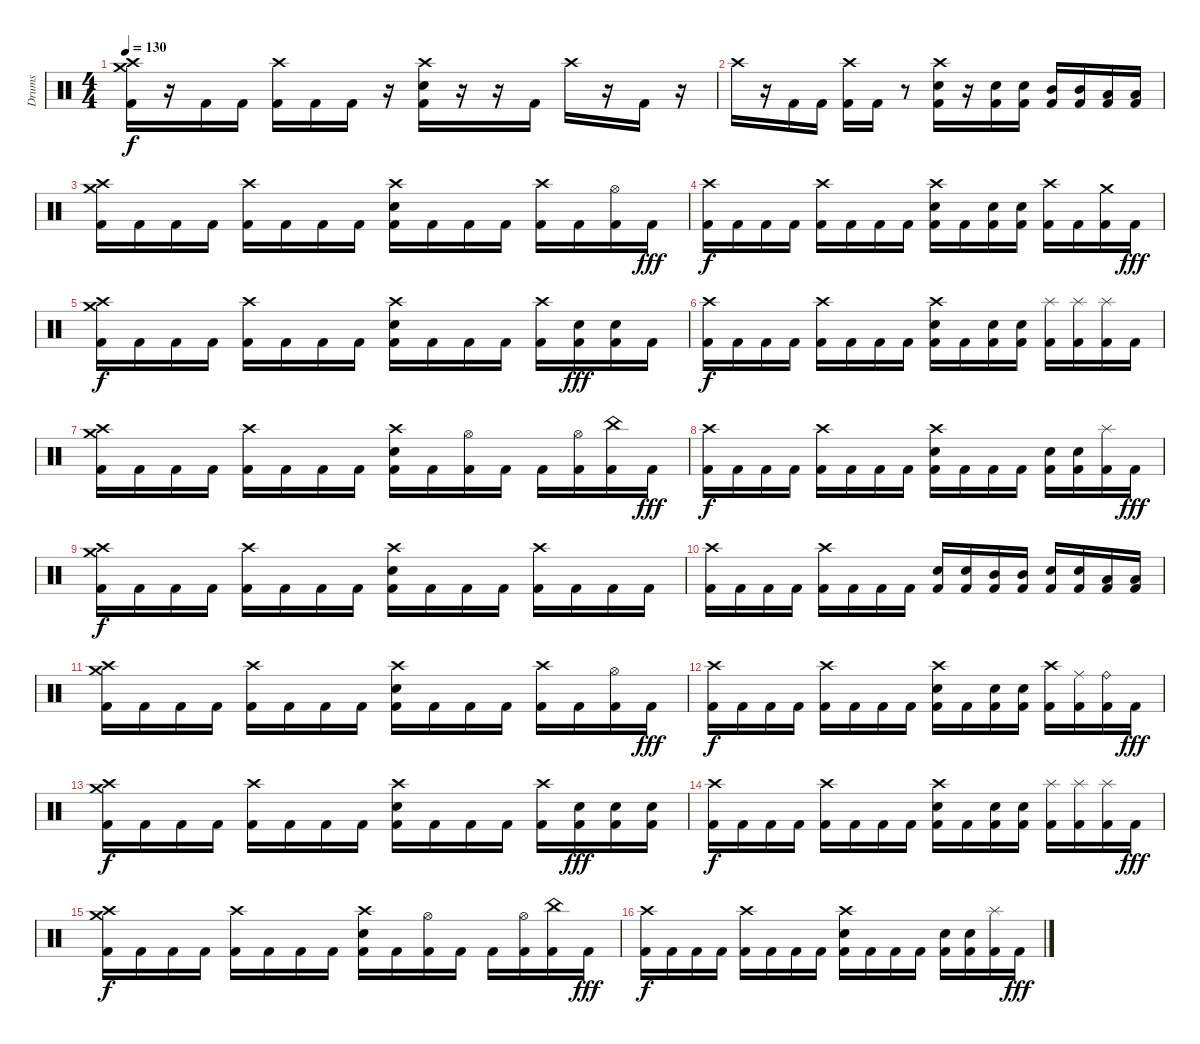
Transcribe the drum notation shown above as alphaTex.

\track ("Drums" "Drums") {instrument percussion}
\staff {score}
\articulation defaults
\ts (4 4)
\tempo 130
\clef neutral
\ks c
("Crash high (hit)" "Crash medium (hit)" "Kick (hit) 2").16{dy f} r.16 "Kick (hit) 2".16 "Kick (hit) 2".16 ("Crash high (hit)" "Kick (hit) 2").16 "Kick (hit) 2".16 "Kick (hit) 2".16 r.16 ("Crash high (hit)" "Electric Snare (hit)" "Kick (hit) 2").16 r.16 r.16 "Kick (hit) 2".16 "Crash high (hit)".16 r.16 "Kick (hit) 2".16 r.16 |
"Crash high (hit)".16 r.16 "Kick (hit) 2".16 "Kick (hit) 2".16 ("Crash high (hit)" "Kick (hit) 2").16 "Kick (hit) 2".16 r.8 ("Crash high (hit)" "Electric Snare (hit)" "Kick (hit) 2").16 r.16 ("Electric Snare (hit)" "Kick (hit) 2").16 ("Electric Snare (hit)" "Kick (hit) 2").16 ("Mid Tom (hit)" "Kick (hit) 2").16 ("Mid Tom (hit)" "Kick (hit) 2").16 ("Low Tom (hit)" "Kick (hit) 2").16 ("Low Tom (hit)" "Kick (hit) 2").16 |
("Crash high (hit)" "Crash medium (hit)" "Kick (hit) 2").16 "Kick (hit) 2".16 "Kick (hit) 2".16 "Kick (hit) 2".16 ("Crash high (hit)" "Kick (hit) 2").16 "Kick (hit) 2".16 "Kick (hit) 2".16 "Kick (hit) 2".16 ("Crash high (hit)" "Electric Snare (hit)" "Kick (hit) 2").16 "Kick (hit) 2".16 "Kick (hit) 2".16 "Kick (hit) 2".16 ("Crash high (hit)" "Kick (hit) 2").16 "Kick (hit) 2".16 ("Hi-Hat (open)" "Kick (hit) 2").16 "Kick (hit) 2".16{dy fff} |
("Crash high (hit)" "Kick (hit) 2").16{dy f} "Kick (hit) 2".16 "Kick (hit) 2".16 "Kick (hit) 2".16 ("Crash high (hit)" "Kick (hit) 2").16 "Kick (hit) 2".16 "Kick (hit) 2".16 "Kick (hit) 2".16 ("Crash high (hit)" "Electric Snare (hit)" "Kick (hit) 2").16 "Kick (hit) 2".16 ("Electric Snare (hit)" "Kick (hit) 2").16 ("Electric Snare (hit)" "Kick (hit) 2").16 ("Crash high (hit)" "Kick (hit) 2").16 "Kick (hit) 2".16 ("Crash medium (hit)" "Kick (hit) 2").16 "Kick (hit) 2".16{dy fff} |
("Crash high (hit)" "Crash medium (hit)" "Kick (hit) 2").16{dy f} "Kick (hit) 2".16 "Kick (hit) 2".16 "Kick (hit) 2".16 ("Crash high (hit)" "Kick (hit) 2").16 "Kick (hit) 2".16 "Kick (hit) 2".16 "Kick (hit) 2".16 ("Crash high (hit)" "Electric Snare (hit)" "Kick (hit) 2").16 "Kick (hit) 2".16 "Kick (hit) 2".16 "Kick (hit) 2".16 ("Crash high (hit)" "Kick (hit) 2").16 ("Electric Snare (hit)" "Kick (hit) 2").16{dy fff} ("Electric Snare (hit)" "Kick (hit) 2").16 "Kick (hit) 2".16 |
("Crash high (hit)" "Kick (hit) 2").16{dy f} "Kick (hit) 2".16 "Kick (hit) 2".16 "Kick (hit) 2".16 ("Crash high (hit)" "Kick (hit) 2").16 "Kick (hit) 2".16 "Kick (hit) 2".16 "Kick (hit) 2".16 ("Crash high (hit)" "Electric Snare (hit)" "Kick (hit) 2").16 "Kick (hit) 2".16 ("Electric Snare (hit)" "Kick (hit) 2").16 ("Electric Snare (hit)" "Kick (hit) 2").16 ("Splash (hit)" "Kick (hit) 2").16 ("Splash (hit)" "Kick (hit) 2").16 ("Splash (hit)" "Kick (hit) 2").16 "Kick (hit) 2".16 |
("Crash high (hit)" "Crash medium (hit)" "Kick (hit) 2").16 "Kick (hit) 2".16 "Kick (hit) 2".16 "Kick (hit) 2".16 ("Crash high (hit)" "Kick (hit) 2").16 "Kick (hit) 2".16 "Kick (hit) 2".16 "Kick (hit) 2".16 ("Crash high (hit)" "Electric Snare (hit)" "Kick (hit) 2").16 "Kick (hit) 2".16 ("Hi-Hat (open)" "Kick (hit) 2").16 "Kick (hit) 2".16 "Kick (hit) 2".16 ("Hi-Hat (open)" "Kick (hit) 2").16 ("China (hit)" "Kick (hit) 2").16 "Kick (hit) 2".16{dy fff} |
("Crash high (hit)" "Kick (hit) 2").16{dy f} "Kick (hit) 2".16 "Kick (hit) 2".16 "Kick (hit) 2".16 ("Crash high (hit)" "Kick (hit) 2").16 "Kick (hit) 2".16 "Kick (hit) 2".16 "Kick (hit) 2".16 ("Crash high (hit)" "Electric Snare (hit)" "Kick (hit) 2").16 "Kick (hit) 2".16 "Kick (hit) 2".16 "Kick (hit) 2".16 ("Electric Snare (hit)" "Kick (hit) 2").16 ("Electric Snare (hit)" "Kick (hit) 2").16 ("Splash (hit)" "Kick (hit) 2").16 "Kick (hit) 2".16{dy fff} |
("Crash high (hit)" "Crash medium (hit)" "Kick (hit) 2").16{dy f} "Kick (hit) 2".16 "Kick (hit) 2".16 "Kick (hit) 2".16 ("Crash high (hit)" "Kick (hit) 2").16 "Kick (hit) 2".16 "Kick (hit) 2".16 "Kick (hit) 2".16 ("Crash high (hit)" "Electric Snare (hit)" "Kick (hit) 2").16 "Kick (hit) 2".16 "Kick (hit) 2".16 "Kick (hit) 2".16 ("Crash high (hit)" "Kick (hit) 2").16 "Kick (hit) 2".16 "Kick (hit) 2".16 "Kick (hit) 2".16 |
("Crash high (hit)" "Kick (hit) 2").16 "Kick (hit) 2".16 "Kick (hit) 2".16 "Kick (hit) 2".16 ("Crash high (hit)" "Kick (hit) 2").16 "Kick (hit) 2".16 "Kick (hit) 2".16 "Kick (hit) 2".16 ("Electric Snare (hit)" "Kick (hit) 2").16 ("Electric Snare (hit)" "Kick (hit) 2").16 ("Mid Tom (hit)" "Kick (hit) 2").16 ("Mid Tom (hit)" "Kick (hit) 2").16 ("Electric Snare (hit)" "Kick (hit) 2").16 ("Electric Snare (hit)" "Kick (hit) 2").16 ("Low Tom (hit)" "Kick (hit) 2").16 ("Low Tom (hit)" "Kick (hit) 2").16 |
("Crash high (hit)" "Crash medium (hit)" "Kick (hit) 2").16 "Kick (hit) 2".16 "Kick (hit) 2".16 "Kick (hit) 2".16 ("Crash high (hit)" "Kick (hit) 2").16 "Kick (hit) 2".16 "Kick (hit) 2".16 "Kick (hit) 2".16 ("Crash high (hit)" "Electric Snare (hit)" "Kick (hit) 2").16 "Kick (hit) 2".16 "Kick (hit) 2".16 "Kick (hit) 2".16 ("Crash high (hit)" "Kick (hit) 2").16 "Kick (hit) 2".16 ("Hi-Hat (open)" "Kick (hit) 2").16 "Kick (hit) 2".16{dy fff} |
("Crash high (hit)" "Kick (hit) 2").16{dy f} "Kick (hit) 2".16 "Kick (hit) 2".16 "Kick (hit) 2".16 ("Crash high (hit)" "Kick (hit) 2").16 "Kick (hit) 2".16 "Kick (hit) 2".16 "Kick (hit) 2".16 ("Crash high (hit)" "Electric Snare (hit)" "Kick (hit) 2").16 "Kick (hit) 2".16 ("Electric Snare (hit)" "Kick (hit) 2").16 ("Electric Snare (hit)" "Kick (hit) 2").16 ("Crash high (hit)" "Kick (hit) 2").16 ("Ride (middle)" "Kick (hit) 2").16 ("Ride (bell)" "Kick (hit) 2").16 "Kick (hit) 2".16{dy fff} |
("Crash high (hit)" "Crash medium (hit)" "Kick (hit) 2").16{dy f} "Kick (hit) 2".16 "Kick (hit) 2".16 "Kick (hit) 2".16 ("Crash high (hit)" "Kick (hit) 2").16 "Kick (hit) 2".16 "Kick (hit) 2".16 "Kick (hit) 2".16 ("Crash high (hit)" "Electric Snare (hit)" "Kick (hit) 2").16 "Kick (hit) 2".16 "Kick (hit) 2".16 "Kick (hit) 2".16 ("Crash high (hit)" "Kick (hit) 2").16 ("Electric Snare (hit)" "Kick (hit) 2").16{dy fff} ("Electric Snare (hit)" "Kick (hit) 2").16 ("Electric Snare (hit)" "Kick (hit) 2").16 |
("Crash high (hit)" "Kick (hit) 2").16{dy f} "Kick (hit) 2".16 "Kick (hit) 2".16 "Kick (hit) 2".16 ("Crash high (hit)" "Kick (hit) 2").16 "Kick (hit) 2".16 "Kick (hit) 2".16 "Kick (hit) 2".16 ("Crash high (hit)" "Electric Snare (hit)" "Kick (hit) 2").16 "Kick (hit) 2".16 ("Electric Snare (hit)" "Kick (hit) 2").16 ("Electric Snare (hit)" "Kick (hit) 2").16 ("Splash (hit)" "Kick (hit) 2").16 ("Splash (hit)" "Kick (hit) 2").16 ("Splash (hit)" "Kick (hit) 2").16 "Kick (hit) 2".16{dy fff} |
("Crash high (hit)" "Crash medium (hit)" "Kick (hit) 2").16{dy f} "Kick (hit) 2".16 "Kick (hit) 2".16 "Kick (hit) 2".16 ("Crash high (hit)" "Kick (hit) 2").16 "Kick (hit) 2".16 "Kick (hit) 2".16 "Kick (hit) 2".16 ("Crash high (hit)" "Electric Snare (hit)" "Kick (hit) 2").16 "Kick (hit) 2".16 ("Hi-Hat (open)" "Kick (hit) 2").16 "Kick (hit) 2".16 "Kick (hit) 2".16 ("Hi-Hat (open)" "Kick (hit) 2").16 ("China (hit)" "Kick (hit) 2").16 "Kick (hit) 2".16{dy fff} |
("Crash high (hit)" "Kick (hit) 2").16{dy f} "Kick (hit) 2".16 "Kick (hit) 2".16 "Kick (hit) 2".16 ("Crash high (hit)" "Kick (hit) 2").16 "Kick (hit) 2".16 "Kick (hit) 2".16 "Kick (hit) 2".16 ("Crash high (hit)" "Electric Snare (hit)" "Kick (hit) 2").16 "Kick (hit) 2".16 "Kick (hit) 2".16 "Kick (hit) 2".16 ("Electric Snare (hit)" "Kick (hit) 2").16 ("Electric Snare (hit)" "Kick (hit) 2").16 ("Splash (hit)" "Kick (hit) 2").16 "Kick (hit) 2".16{dy fff}
